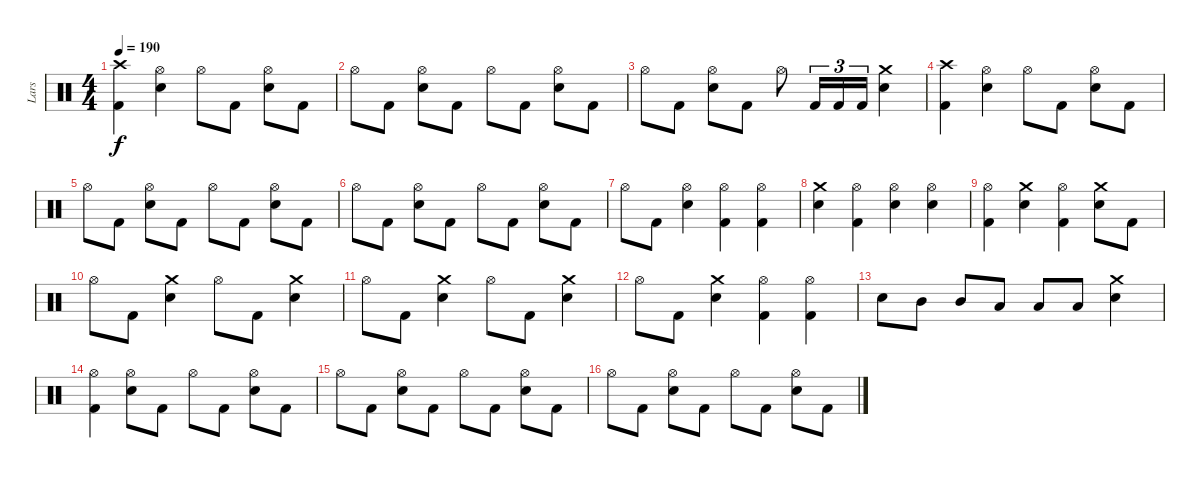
\track ("Lars" "Lars") {instrument percussion}
\staff {score}
\articulation defaults
\ts (4 4)
\tempo 190
\clef neutral
\ks c
("Crash high (hit)" "Kick (hit) 2").4{dy f} ("Hi-Hat (open)" "Snare (hit) 2").4 "Hi-Hat (open)".8 "Kick (hit) 2".8 ("Hi-Hat (open)" "Snare (hit) 2").8 "Kick (hit) 2".8 |
"Hi-Hat (open)".8 "Kick (hit) 2".8 ("Hi-Hat (open)" "Snare (hit) 2").8 "Kick (hit) 2".8 "Hi-Hat (open)".8 "Kick (hit) 2".8 ("Hi-Hat (open)" "Snare (hit) 2").8 "Kick (hit) 2".8 |
"Hi-Hat (open)".8 "Kick (hit) 2".8 ("Hi-Hat (open)" "Snare (hit) 2").8 "Kick (hit) 2".8 "Hi-Hat (open)".8 "Kick (hit) 2".16{tu (3 2)} "Kick (hit) 2".16{tu (3 2)} "Kick (hit) 2".16{tu (3 2)} ("Crash medium (hit)" "Snare (hit) 2").4 |
("Crash high (hit)" "Kick (hit) 2").4 ("Hi-Hat (open)" "Snare (hit) 2").4 "Hi-Hat (open)".8 "Kick (hit) 2".8 ("Hi-Hat (open)" "Snare (hit) 2").8 "Kick (hit) 2".8 |
"Hi-Hat (open)".8 "Kick (hit) 2".8 ("Hi-Hat (open)" "Snare (hit) 2").8 "Kick (hit) 2".8 "Hi-Hat (open)".8 "Kick (hit) 2".8 ("Hi-Hat (open)" "Snare (hit) 2").8 "Kick (hit) 2".8 |
"Hi-Hat (open)".8 "Kick (hit) 2".8 ("Hi-Hat (open)" "Snare (hit) 2").8 "Kick (hit) 2".8 "Hi-Hat (open)".8 "Kick (hit) 2".8 ("Hi-Hat (open)" "Snare (hit) 2").8 "Kick (hit) 2".8 |
"Hi-Hat (open)".8 "Kick (hit) 2".8 ("Hi-Hat (open)" "Snare (hit) 2").4 ("Hi-Hat (open)" "Kick (hit) 2").4 ("Hi-Hat (open)" "Kick (hit) 2").4 |
("Crash medium (hit)" "Snare (hit) 2").4 ("Hi-Hat (open)" "Kick (hit) 2").4 ("Hi-Hat (open)" "Snare (hit) 2").4 ("Hi-Hat (open)" "Snare (hit) 2").4 |
("Hi-Hat (open)" "Kick (hit) 2").4 ("Crash medium (hit)" "Snare (hit) 2").4 ("Hi-Hat (open)" "Kick (hit) 2").4 ("Crash medium (hit)" "Snare (hit) 2").8 "Kick (hit) 2".8 |
"Hi-Hat (open)".8 "Kick (hit) 2".8 ("Crash medium (hit)" "Snare (hit) 2").4 "Hi-Hat (open)".8 "Kick (hit) 2".8 ("Crash medium (hit)" "Snare (hit) 2").4 |
"Hi-Hat (open)".8 "Kick (hit) 2".8 ("Crash medium (hit)" "Snare (hit) 2").4 "Hi-Hat (open)".8 "Kick (hit) 2".8 ("Crash medium (hit)" "Snare (hit) 2").4 |
"Hi-Hat (open)".8 "Kick (hit) 2".8 ("Crash medium (hit)" "Snare (hit) 2").4 ("Hi-Hat (open)" "Kick (hit) 2").4 ("Hi-Hat (open)" "Kick (hit) 2").4 |
"Snare (hit) 2".8 "Mid Tom (hit)".8 "Mid Tom (hit)".8 "Low Tom (hit)".8 "Low Tom (hit)".8 "Low Tom (hit)".8 ("Crash medium (hit)" "Snare (hit) 2").4 |
("Hi-Hat (open)" "Kick (hit) 2").4 ("Hi-Hat (open)" "Snare (hit) 2").8 "Kick (hit) 2".8 "Hi-Hat (open)".8 "Kick (hit) 2".8 ("Hi-Hat (open)" "Snare (hit) 2").8 "Kick (hit) 2".8 |
"Hi-Hat (open)".8 "Kick (hit) 2".8 ("Hi-Hat (open)" "Snare (hit) 2").8 "Kick (hit) 2".8 "Hi-Hat (open)".8 "Kick (hit) 2".8 ("Hi-Hat (open)" "Snare (hit) 2").8 "Kick (hit) 2".8 |
"Hi-Hat (open)".8 "Kick (hit) 2".8 ("Hi-Hat (open)" "Snare (hit) 2").8 "Kick (hit) 2".8 "Hi-Hat (open)".8 "Kick (hit) 2".8 ("Hi-Hat (open)" "Snare (hit) 2").8 "Kick (hit) 2".8
